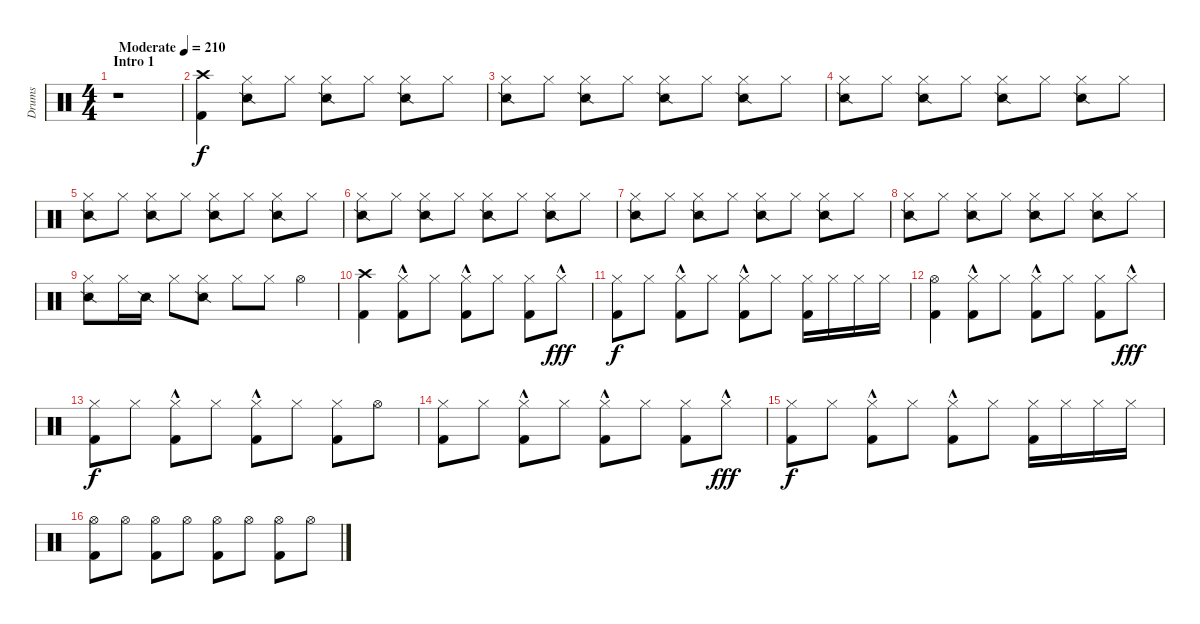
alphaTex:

\track ("Drums" "Drums") {instrument percussion}
\staff {score}
\articulation defaults
\ts (4 4)
\section ("" "Intro 1")
\tempo (210 "Moderate")
\clef neutral
\ks c
r.1{dy f} |
("Crash high (hit)" "Kick (hit) 2").4 ("Hi-Hat (closed)" "Snare (side stick) 2").8 "Hi-Hat (closed)".8 ("Hi-Hat (closed)" "Snare (side stick) 2").8 "Hi-Hat (closed)".8 ("Hi-Hat (closed)" "Snare (side stick) 2").8 "Hi-Hat (closed)".8 |
("Hi-Hat (closed)" "Snare (side stick) 2").8 "Hi-Hat (closed)".8 ("Hi-Hat (closed)" "Snare (side stick) 2").8 "Hi-Hat (closed)".8 ("Hi-Hat (closed)" "Snare (side stick) 2").8 "Hi-Hat (closed)".8 ("Hi-Hat (closed)" "Snare (side stick) 2").8 "Hi-Hat (closed)".8 |
("Hi-Hat (closed)" "Snare (side stick) 2").8 "Hi-Hat (closed)".8 ("Hi-Hat (closed)" "Snare (side stick) 2").8 "Hi-Hat (closed)".8 ("Hi-Hat (closed)" "Snare (side stick) 2").8 "Hi-Hat (closed)".8 ("Hi-Hat (closed)" "Snare (side stick) 2").8 "Hi-Hat (closed)".8 |
("Hi-Hat (closed)" "Snare (side stick) 2").8 "Hi-Hat (closed)".8 ("Hi-Hat (closed)" "Snare (side stick) 2").8 "Hi-Hat (closed)".8 ("Hi-Hat (closed)" "Snare (side stick) 2").8 "Hi-Hat (closed)".8 ("Hi-Hat (closed)" "Snare (side stick) 2").8 "Hi-Hat (closed)".8 |
("Hi-Hat (closed)" "Snare (side stick) 2").8 "Hi-Hat (closed)".8 ("Hi-Hat (closed)" "Snare (side stick) 2").8 "Hi-Hat (closed)".8 ("Hi-Hat (closed)" "Snare (side stick) 2").8 "Hi-Hat (closed)".8 ("Hi-Hat (closed)" "Snare (side stick) 2").8 "Hi-Hat (closed)".8 |
("Hi-Hat (closed)" "Snare (side stick) 2").8 "Hi-Hat (closed)".8 ("Hi-Hat (closed)" "Snare (side stick) 2").8 "Hi-Hat (closed)".8 ("Hi-Hat (closed)" "Snare (side stick) 2").8 "Hi-Hat (closed)".8 ("Hi-Hat (closed)" "Snare (side stick) 2").8 "Hi-Hat (closed)".8 |
("Hi-Hat (closed)" "Snare (side stick) 2").8 "Hi-Hat (closed)".8 ("Hi-Hat (closed)" "Snare (side stick) 2").8 "Hi-Hat (closed)".8 ("Hi-Hat (closed)" "Snare (side stick) 2").8 "Hi-Hat (closed)".8 ("Hi-Hat (closed)" "Snare (side stick) 2").8 "Hi-Hat (closed)".8 |
("Hi-Hat (closed)" "Snare (side stick) 2").8 "Hi-Hat (closed)".16 "Snare (side stick) 2".16 "Hi-Hat (closed)".8 ("Hi-Hat (closed)" "Snare (side stick) 2").8 "Hi-Hat (closed)".8 "Hi-Hat (closed)".8 "Hi-Hat (open)".4 |
("Crash high (hit)" "Kick (hit) 2").4 ("Hi-Hat (closed)"{hac} "Kick (hit) 2").8 "Hi-Hat (closed)".8 ("Hi-Hat (closed)"{hac} "Kick (hit) 2").8 "Hi-Hat (closed)".8 ("Hi-Hat (closed)" "Kick (hit) 2").8 "Hi-Hat (closed)"{hac}.8{dy fff} |
("Hi-Hat (closed)" "Kick (hit) 2").8{dy f} "Hi-Hat (closed)".8 ("Hi-Hat (closed)"{hac} "Kick (hit) 2").8 "Hi-Hat (closed)".8 ("Hi-Hat (closed)"{hac} "Kick (hit) 2").8 "Hi-Hat (closed)".8 ("Hi-Hat (closed)" "Kick (hit) 2").16 "Hi-Hat (closed)".16 "Hi-Hat (closed)".16 "Hi-Hat (closed)".16 |
("Hi-Hat (open)" "Kick (hit) 2").4 ("Hi-Hat (closed)"{hac} "Kick (hit) 2").8 "Hi-Hat (closed)".8 ("Hi-Hat (closed)"{hac} "Kick (hit) 2").8 "Hi-Hat (closed)".8 ("Hi-Hat (closed)" "Kick (hit) 2").8 "Hi-Hat (closed)"{hac}.8{dy fff} |
("Hi-Hat (closed)" "Kick (hit) 2").8{dy f} "Hi-Hat (closed)".8 ("Hi-Hat (closed)"{hac} "Kick (hit) 2").8 "Hi-Hat (closed)".8 ("Hi-Hat (closed)"{hac} "Kick (hit) 2").8 "Hi-Hat (closed)".8 ("Hi-Hat (closed)" "Kick (hit) 2").8 "Hi-Hat (open)".8 |
("Hi-Hat (closed)" "Kick (hit) 2").8 "Hi-Hat (closed)".8 ("Hi-Hat (closed)"{hac} "Kick (hit) 2").8 "Hi-Hat (closed)".8 ("Hi-Hat (closed)"{hac} "Kick (hit) 2").8 "Hi-Hat (closed)".8 ("Hi-Hat (closed)" "Kick (hit) 2").8 "Hi-Hat (closed)"{hac}.8{dy fff} |
("Hi-Hat (closed)" "Kick (hit) 2").8{dy f} "Hi-Hat (closed)".8 ("Hi-Hat (closed)"{hac} "Kick (hit) 2").8 "Hi-Hat (closed)".8 ("Hi-Hat (closed)"{hac} "Kick (hit) 2").8 "Hi-Hat (closed)".8 ("Hi-Hat (closed)" "Kick (hit) 2").16 "Hi-Hat (closed)".16 "Hi-Hat (closed)".16 "Hi-Hat (closed)".16 |
("Hi-Hat (open)" "Kick (hit) 2").8 "Hi-Hat (open)".8 ("Hi-Hat (open)" "Kick (hit) 2").8 "Hi-Hat (open)".8 ("Hi-Hat (open)" "Kick (hit) 2").8 "Hi-Hat (open)".8 ("Hi-Hat (open)" "Kick (hit) 2").8 "Hi-Hat (open)".8
